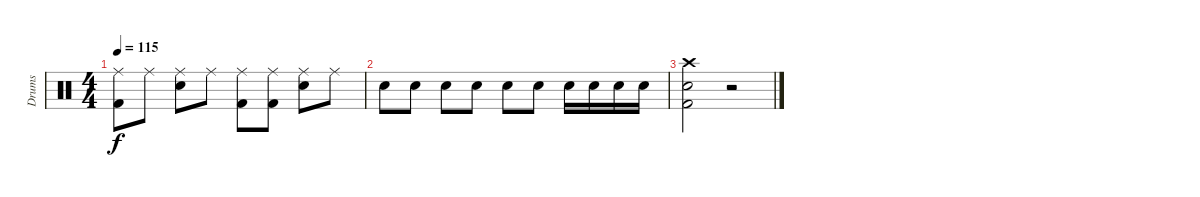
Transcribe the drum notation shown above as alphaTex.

\track ("Drums" "Drums") {instrument percussion}
\staff {score}
\articulation defaults
\ts (4 4)
\tempo 115
\clef neutral
\ks c
("Ride (middle)" "Kick (hit) 2").8{dy f volume 0} "Ride (middle)".8 ("Ride (middle)" "Electric Snare (hit)").8 "Ride (middle)".8 ("Ride (middle)" "Kick (hit) 2").8 ("Ride (middle)" "Kick (hit) 2").8 ("Ride (middle)" "Electric Snare (hit)").8 "Ride (middle)".8 |
"Electric Snare (hit)".8{volume 16} "Electric Snare (hit)".8 "Electric Snare (hit)".8 "Electric Snare (hit)".8 "Electric Snare (hit)".8 "Electric Snare (hit)".8 "Electric Snare (hit)".16 "Electric Snare (hit)".16 "Electric Snare (hit)".16 "Electric Snare (hit)".16 |
("Crash high (hit)" "Kick (hit) 2" "Electric Snare (hit)").2 r.2
